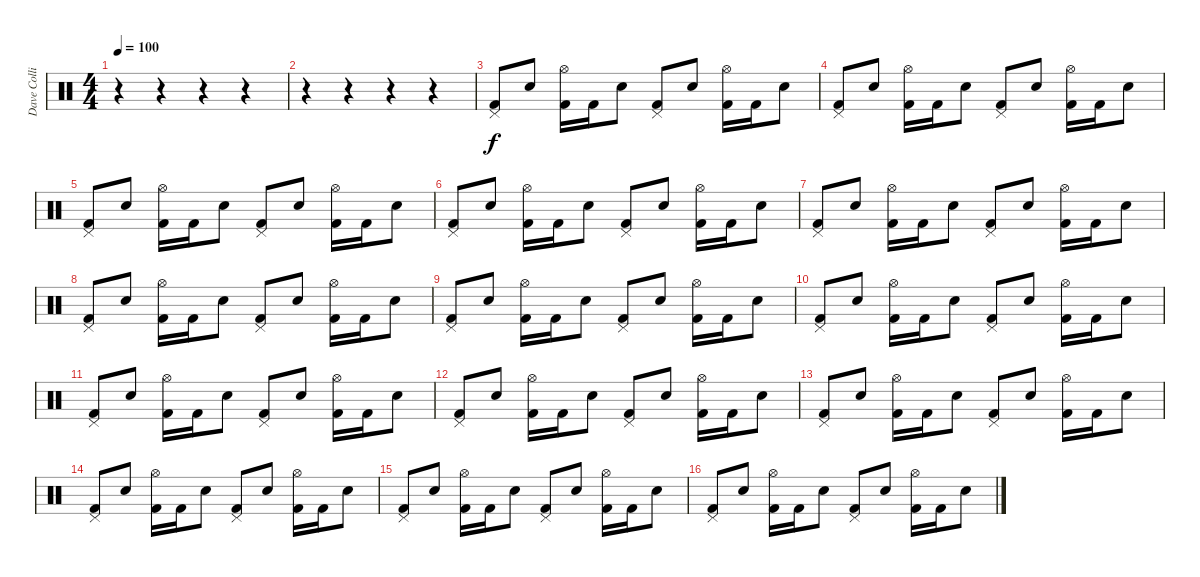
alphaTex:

\track ("Dave Collins" "Dave Colli") {instrument percussion}
\staff {score}
\articulation defaults
\ts (4 4)
\tempo 100
\clef neutral
\ks c
r.4{dy f} r.4 r.4 r.4 |
r.4 r.4 r.4 r.4 |
("Pedal Hi-Hat (hit)" "Kick (hit) 2").8 "Electric Snare (hit)".8 ("Hi-Hat (open)" "Kick (hit) 2").16 "Kick (hit) 2".16 "Electric Snare (hit)".8 ("Pedal Hi-Hat (hit)" "Kick (hit) 2").8 "Electric Snare (hit)".8 ("Hi-Hat (open)" "Kick (hit) 2").16 "Kick (hit) 2".16 "Electric Snare (hit)".8 |
("Pedal Hi-Hat (hit)" "Kick (hit) 2").8 "Electric Snare (hit)".8 ("Hi-Hat (open)" "Kick (hit) 2").16 "Kick (hit) 2".16 "Electric Snare (hit)".8 ("Pedal Hi-Hat (hit)" "Kick (hit) 2").8 "Electric Snare (hit)".8 ("Hi-Hat (open)" "Kick (hit) 2").16 "Kick (hit) 2".16 "Electric Snare (hit)".8 |
("Pedal Hi-Hat (hit)" "Kick (hit) 2").8 "Electric Snare (hit)".8 ("Hi-Hat (open)" "Kick (hit) 2").16 "Kick (hit) 2".16 "Electric Snare (hit)".8 ("Pedal Hi-Hat (hit)" "Kick (hit) 2").8 "Electric Snare (hit)".8 ("Hi-Hat (open)" "Kick (hit) 2").16 "Kick (hit) 2".16 "Electric Snare (hit)".8 |
("Pedal Hi-Hat (hit)" "Kick (hit) 2").8 "Electric Snare (hit)".8 ("Hi-Hat (open)" "Kick (hit) 2").16 "Kick (hit) 2".16 "Electric Snare (hit)".8 ("Pedal Hi-Hat (hit)" "Kick (hit) 2").8 "Electric Snare (hit)".8 ("Hi-Hat (open)" "Kick (hit) 2").16 "Kick (hit) 2".16 "Electric Snare (hit)".8 |
("Pedal Hi-Hat (hit)" "Kick (hit) 2").8 "Electric Snare (hit)".8 ("Hi-Hat (open)" "Kick (hit) 2").16 "Kick (hit) 2".16 "Electric Snare (hit)".8 ("Pedal Hi-Hat (hit)" "Kick (hit) 2").8 "Electric Snare (hit)".8 ("Hi-Hat (open)" "Kick (hit) 2").16 "Kick (hit) 2".16 "Electric Snare (hit)".8 |
("Pedal Hi-Hat (hit)" "Kick (hit) 2").8 "Electric Snare (hit)".8 ("Hi-Hat (open)" "Kick (hit) 2").16 "Kick (hit) 2".16 "Electric Snare (hit)".8 ("Pedal Hi-Hat (hit)" "Kick (hit) 2").8 "Electric Snare (hit)".8 ("Hi-Hat (open)" "Kick (hit) 2").16 "Kick (hit) 2".16 "Electric Snare (hit)".8 |
("Pedal Hi-Hat (hit)" "Kick (hit) 2").8 "Electric Snare (hit)".8 ("Hi-Hat (open)" "Kick (hit) 2").16 "Kick (hit) 2".16 "Electric Snare (hit)".8 ("Pedal Hi-Hat (hit)" "Kick (hit) 2").8 "Electric Snare (hit)".8 ("Hi-Hat (open)" "Kick (hit) 2").16 "Kick (hit) 2".16 "Electric Snare (hit)".8 |
("Pedal Hi-Hat (hit)" "Kick (hit) 2").8 "Electric Snare (hit)".8 ("Hi-Hat (open)" "Kick (hit) 2").16 "Kick (hit) 2".16 "Electric Snare (hit)".8 ("Pedal Hi-Hat (hit)" "Kick (hit) 2").8 "Electric Snare (hit)".8 ("Hi-Hat (open)" "Kick (hit) 2").16 "Kick (hit) 2".16 "Electric Snare (hit)".8 |
("Pedal Hi-Hat (hit)" "Kick (hit) 2").8 "Electric Snare (hit)".8 ("Hi-Hat (open)" "Kick (hit) 2").16 "Kick (hit) 2".16 "Electric Snare (hit)".8 ("Pedal Hi-Hat (hit)" "Kick (hit) 2").8 "Electric Snare (hit)".8 ("Hi-Hat (open)" "Kick (hit) 2").16 "Kick (hit) 2".16 "Electric Snare (hit)".8 |
("Pedal Hi-Hat (hit)" "Kick (hit) 2").8 "Electric Snare (hit)".8 ("Hi-Hat (open)" "Kick (hit) 2").16 "Kick (hit) 2".16 "Electric Snare (hit)".8 ("Pedal Hi-Hat (hit)" "Kick (hit) 2").8 "Electric Snare (hit)".8 ("Hi-Hat (open)" "Kick (hit) 2").16 "Kick (hit) 2".16 "Electric Snare (hit)".8 |
("Pedal Hi-Hat (hit)" "Kick (hit) 2").8 "Electric Snare (hit)".8 ("Hi-Hat (open)" "Kick (hit) 2").16 "Kick (hit) 2".16 "Electric Snare (hit)".8 ("Pedal Hi-Hat (hit)" "Kick (hit) 2").8 "Electric Snare (hit)".8 ("Hi-Hat (open)" "Kick (hit) 2").16 "Kick (hit) 2".16 "Electric Snare (hit)".8 |
("Pedal Hi-Hat (hit)" "Kick (hit) 2").8 "Electric Snare (hit)".8 ("Hi-Hat (open)" "Kick (hit) 2").16 "Kick (hit) 2".16 "Electric Snare (hit)".8 ("Pedal Hi-Hat (hit)" "Kick (hit) 2").8 "Electric Snare (hit)".8 ("Hi-Hat (open)" "Kick (hit) 2").16 "Kick (hit) 2".16 "Electric Snare (hit)".8 |
("Pedal Hi-Hat (hit)" "Kick (hit) 2").8 "Electric Snare (hit)".8 ("Hi-Hat (open)" "Kick (hit) 2").16 "Kick (hit) 2".16 "Electric Snare (hit)".8 ("Pedal Hi-Hat (hit)" "Kick (hit) 2").8 "Electric Snare (hit)".8 ("Hi-Hat (open)" "Kick (hit) 2").16 "Kick (hit) 2".16 "Electric Snare (hit)".8 |
("Pedal Hi-Hat (hit)" "Kick (hit) 2").8 "Electric Snare (hit)".8 ("Hi-Hat (open)" "Kick (hit) 2").16 "Kick (hit) 2".16 "Electric Snare (hit)".8 ("Pedal Hi-Hat (hit)" "Kick (hit) 2").8 "Electric Snare (hit)".8 ("Hi-Hat (open)" "Kick (hit) 2").16 "Kick (hit) 2".16 "Electric Snare (hit)".8
